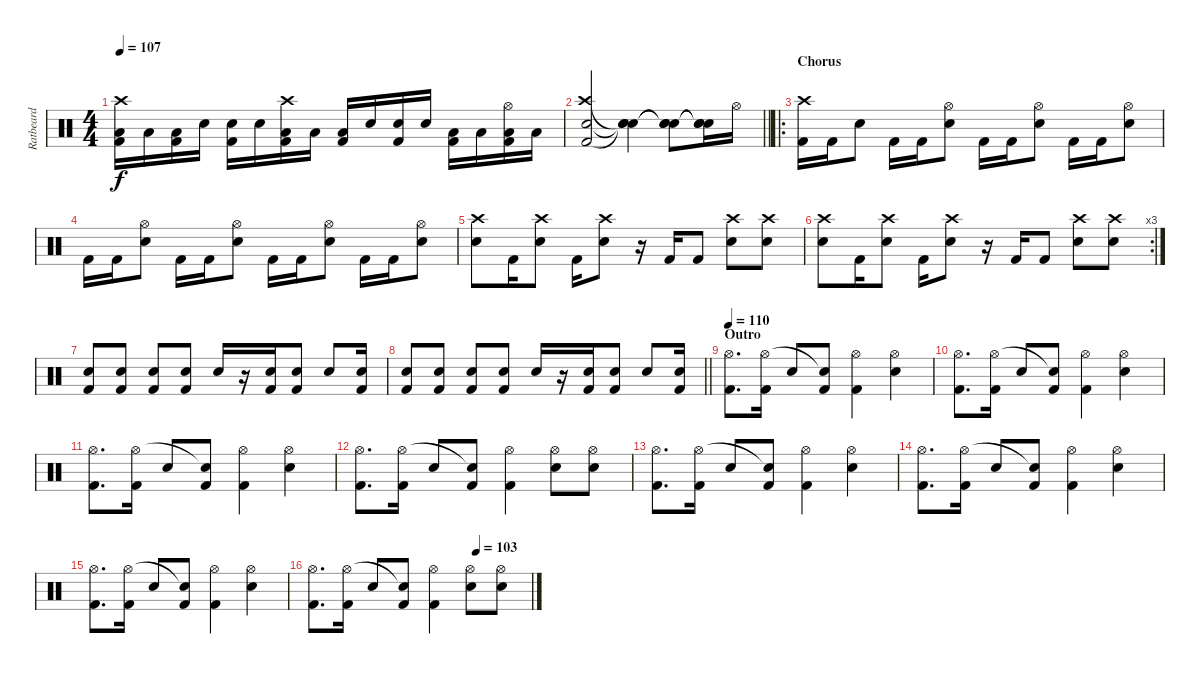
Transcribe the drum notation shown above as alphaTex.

\track ("Ratbeard" "Ratbeard") {instrument percussion}
\staff {score}
\articulation defaults
\ts (4 4)
\tempo 107
\clef neutral
\ks c
("Kick (hit) 2" "Low Tom (hit)" "Crash high (hit)").16{dy f} "Low Tom (hit)".16 ("Kick (hit) 2" "Low Tom (hit)").16 "Snare (hit) 2".16 ("Kick (hit) 2" "Snare (hit) 2").16 "Snare (hit) 2".16 ("Kick (hit) 2" "Low Tom (hit)" "Crash high (hit)").16 "Low Tom (hit)".16 ("Kick (hit) 2" "Low Tom (hit)").16 "Snare (hit) 2".16 ("Kick (hit) 2" "Snare (hit) 2").16 "Snare (hit) 2".16 ("Kick (hit) 2" "Low Tom (hit)").16 "Low Tom (hit)".16 ("Kick (hit) 2" "Low Tom (hit)" "Hi-Hat (open)").16 "Low Tom (hit)".16 |
\barLineRight lightlight
("Kick (hit) 2" "Snare (hit) 2" "Crash high (hit)").2 ("Snare (hit)"{t} "Snare (hit)"{t} "Snare (hit)"{t}).4 ("Snare (hit)"{t} "Snare (hit)"{t} "Snare (hit)"{t}).8 ("Snare (hit)"{t} "Snare (hit)"{t} "Snare (hit)"{t}).16 "Hi-Hat (open)".16 |
\ro
\section ("" "Chorus ")
("Crash high (hit)" "Kick (hit) 2").16 "Kick (hit) 2".16 "Snare (hit) 2".8 "Kick (hit) 2".16 "Kick (hit) 2".16 ("Hi-Hat (open)" "Snare (hit) 2").8 "Kick (hit) 2".16 "Kick (hit) 2".16 ("Hi-Hat (open)" "Snare (hit) 2").8 "Kick (hit) 2".16 "Kick (hit) 2".16 ("Hi-Hat (open)" "Snare (hit) 2").8 |
"Kick (hit) 2".16 "Kick (hit) 2".16 ("Hi-Hat (open)" "Snare (hit) 2").8 "Kick (hit) 2".16 "Kick (hit) 2".16 ("Hi-Hat (open)" "Snare (hit) 2").8 "Kick (hit) 2".16 "Kick (hit) 2".16 ("Hi-Hat (open)" "Snare (hit) 2").8 "Kick (hit) 2".16 "Kick (hit) 2".16 ("Hi-Hat (open)" "Snare (hit) 2").8 |
("Crash high (hit)" "Snare (hit) 2").8 "Kick (hit) 2".16 ("Crash high (hit)" "Snare (hit) 2").8 "Kick (hit) 2".16 ("Crash high (hit)" "Snare (hit) 2").8 r.16 "Kick (hit) 2".16 "Kick (hit) 2".8 ("Crash high (hit)" "Snare (hit) 2").8 ("Crash high (hit)" "Snare (hit) 2").8 |
\rc 3
("Crash high (hit)" "Snare (hit) 2").8 "Kick (hit) 2".16 ("Crash high (hit)" "Snare (hit) 2").8 "Kick (hit) 2".16 ("Crash high (hit)" "Snare (hit) 2").8 r.16 "Kick (hit) 2".16 "Kick (hit) 2".8 ("Crash high (hit)" "Snare (hit) 2").8 ("Crash high (hit)" "Snare (hit) 2").8 |
("Kick (hit) 2" "Snare (hit) 2").8 ("Kick (hit) 2" "Snare (hit) 2").8 ("Kick (hit) 2" "Snare (hit) 2").8 ("Kick (hit) 2" "Snare (hit) 2").8 "Snare (hit) 2".16 r.16 ("Kick (hit) 2" "Snare (hit) 2").16 ("Kick (hit) 2" "Snare (hit) 2").8 "Snare (hit) 2".8 ("Kick (hit) 2" "Snare (hit) 2").16 |
\barLineRight lightlight
("Kick (hit) 2" "Snare (hit) 2").8 ("Kick (hit) 2" "Snare (hit) 2").8 ("Kick (hit) 2" "Snare (hit) 2").8 ("Kick (hit) 2" "Snare (hit) 2").8 "Snare (hit) 2".16 r.16 ("Kick (hit) 2" "Snare (hit) 2").16 ("Kick (hit) 2" "Snare (hit) 2").8 "Snare (hit) 2".8 ("Kick (hit) 2" "Snare (hit) 2").16 |
\section ("" "Outro")
\tempo 110
("Kick (hit) 2" "Hi-Hat (open)").8{d} ("Kick (hit) 2" "Hi-Hat (open)").16 "Snare (hit) 2".8 ("Kick (hit) 2" "Snare (hit)"{t}).8 ("Kick (hit) 2" "Hi-Hat (open)").4 ("Snare (hit) 2" "Hi-Hat (open)").4 |
("Kick (hit) 2" "Hi-Hat (open)").8{d} ("Kick (hit) 2" "Hi-Hat (open)").16 "Snare (hit) 2".8 ("Kick (hit) 2" "Snare (hit)"{t}).8 ("Kick (hit) 2" "Hi-Hat (open)").4 ("Snare (hit) 2" "Hi-Hat (open)").4 |
("Kick (hit) 2" "Hi-Hat (open)").8{d} ("Kick (hit) 2" "Hi-Hat (open)").16 "Snare (hit) 2".8 ("Kick (hit) 2" "Snare (hit)"{t}).8 ("Kick (hit) 2" "Hi-Hat (open)").4 ("Snare (hit) 2" "Hi-Hat (open)").4 |
("Kick (hit) 2" "Hi-Hat (open)").8{d} ("Kick (hit) 2" "Hi-Hat (open)").16 "Snare (hit) 2".8 ("Kick (hit) 2" "Snare (hit)"{t}).8 ("Kick (hit) 2" "Hi-Hat (open)").4 ("Snare (hit) 2" "Hi-Hat (open)").8 ("Snare (hit) 2" "Hi-Hat (open)").8 |
("Kick (hit) 2" "Hi-Hat (open)").8{d} ("Kick (hit) 2" "Hi-Hat (open)").16 "Snare (hit) 2".8 ("Kick (hit) 2" "Snare (hit)"{t}).8 ("Kick (hit) 2" "Hi-Hat (open)").4 ("Snare (hit) 2" "Hi-Hat (open)").4 |
("Kick (hit) 2" "Hi-Hat (open)").8{d} ("Kick (hit) 2" "Hi-Hat (open)").16 "Snare (hit) 2".8 ("Kick (hit) 2" "Snare (hit)"{t}).8 ("Kick (hit) 2" "Hi-Hat (open)").4 ("Snare (hit) 2" "Hi-Hat (open)").4 |
("Kick (hit) 2" "Hi-Hat (open)").8{d} ("Kick (hit) 2" "Hi-Hat (open)").16 "Snare (hit) 2".8 ("Kick (hit) 2" "Snare (hit)"{t}).8 ("Kick (hit) 2" "Hi-Hat (open)").4 ("Snare (hit) 2" "Hi-Hat (open)").4 |
\tempo (103 0.75)
("Kick (hit) 2" "Hi-Hat (open)").8{d} ("Kick (hit) 2" "Hi-Hat (open)").16 "Snare (hit) 2".8 ("Kick (hit) 2" "Snare (hit)"{t}).8 ("Kick (hit) 2" "Hi-Hat (open)").4 ("Snare (hit) 2" "Hi-Hat (open)").8 ("Snare (hit) 2" "Hi-Hat (open)").8
